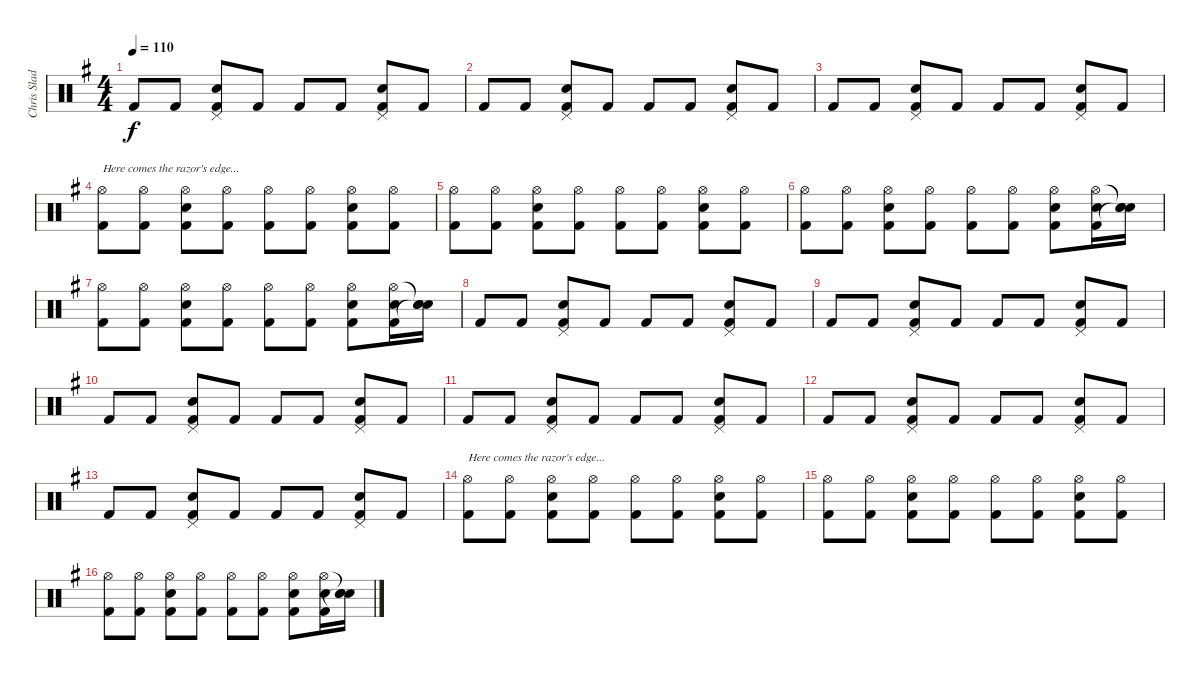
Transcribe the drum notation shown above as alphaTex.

\track ("Chris Slade (Percussion)" "Chris Slad") {instrument percussion}
\staff {score}
\articulation defaults
\ts (4 4)
\tempo 110
\clef neutral
\ks g "Kick (hit) 2".8{dy f} "Kick (hit) 2".8
("Pedal Hi-Hat (hit)" "Snare (hit) 2" "Kick (hit) 2").8 "Kick (hit) 2".8 "Kick (hit) 2".8 "Kick (hit) 2".8 ("Pedal Hi-Hat (hit)" "Snare (hit) 2" "Kick (hit) 2").8 "Kick (hit) 2".8 |
"Kick (hit) 2".8 "Kick (hit) 2".8 ("Pedal Hi-Hat (hit)" "Snare (hit) 2" "Kick (hit) 2").8 "Kick (hit) 2".8 "Kick (hit) 2".8 "Kick (hit) 2".8 ("Pedal Hi-Hat (hit)" "Snare (hit) 2" "Kick (hit) 2").8 "Kick (hit) 2".8 |
"Kick (hit) 2".8 "Kick (hit) 2".8 ("Pedal Hi-Hat (hit)" "Snare (hit) 2" "Kick (hit) 2").8 "Kick (hit) 2".8 "Kick (hit) 2".8 "Kick (hit) 2".8 ("Pedal Hi-Hat (hit)" "Snare (hit) 2" "Kick (hit) 2").8 "Kick (hit) 2".8 |
("Hi-Hat (open)" "Kick (hit) 2").8{txt "Here comes the razor's edge..."} ("Hi-Hat (open)" "Kick (hit) 2").8 ("Hi-Hat (open)" "Snare (hit) 2" "Kick (hit) 2").8 ("Hi-Hat (open)" "Kick (hit) 2").8 ("Hi-Hat (open)" "Kick (hit) 2").8 ("Hi-Hat (open)" "Kick (hit) 2").8 ("Hi-Hat (open)" "Snare (hit) 2" "Kick (hit) 2").8 ("Hi-Hat (open)" "Kick (hit) 2").8 |
("Hi-Hat (open)" "Kick (hit) 2").8 ("Hi-Hat (open)" "Kick (hit) 2").8 ("Hi-Hat (open)" "Snare (hit) 2" "Kick (hit) 2").8 ("Hi-Hat (open)" "Kick (hit) 2").8 ("Hi-Hat (open)" "Kick (hit) 2").8 ("Hi-Hat (open)" "Kick (hit) 2").8 ("Hi-Hat (open)" "Snare (hit) 2" "Kick (hit) 2").8 ("Hi-Hat (open)" "Kick (hit) 2").8 |
("Hi-Hat (open)" "Kick (hit) 2").8 ("Hi-Hat (open)" "Kick (hit) 2").8 ("Hi-Hat (open)" "Snare (hit) 2" "Kick (hit) 2").8 ("Hi-Hat (open)" "Kick (hit) 2").8 ("Hi-Hat (open)" "Kick (hit) 2").8 ("Hi-Hat (open)" "Kick (hit) 2").8 ("Hi-Hat (open)" "Snare (hit) 2" "Kick (hit) 2").8 ("Hi-Hat (open)" "Snare (hit) 2" "Kick (hit) 2").16 ("Snare (hit)"{t} "Snare (hit) 2" "Snare (hit)"{t}).16 |
("Hi-Hat (open)" "Kick (hit) 2").8 ("Hi-Hat (open)" "Kick (hit) 2").8 ("Hi-Hat (open)" "Snare (hit) 2" "Kick (hit) 2").8 ("Hi-Hat (open)" "Kick (hit) 2").8 ("Hi-Hat (open)" "Kick (hit) 2").8 ("Hi-Hat (open)" "Kick (hit) 2").8 ("Hi-Hat (open)" "Snare (hit) 2" "Kick (hit) 2").8 ("Hi-Hat (open)" "Snare (hit) 2" "Kick (hit) 2").16 ("Snare (hit)"{t} "Snare (hit) 2" "Snare (hit)"{t}).16 |
"Kick (hit) 2".8 "Kick (hit) 2".8 ("Pedal Hi-Hat (hit)" "Snare (hit) 2" "Kick (hit) 2").8 "Kick (hit) 2".8 "Kick (hit) 2".8 "Kick (hit) 2".8 ("Pedal Hi-Hat (hit)" "Snare (hit) 2" "Kick (hit) 2").8 "Kick (hit) 2".8 |
"Kick (hit) 2".8 "Kick (hit) 2".8 ("Pedal Hi-Hat (hit)" "Snare (hit) 2" "Kick (hit) 2").8 "Kick (hit) 2".8 "Kick (hit) 2".8 "Kick (hit) 2".8 ("Pedal Hi-Hat (hit)" "Snare (hit) 2" "Kick (hit) 2").8 "Kick (hit) 2".8 |
"Kick (hit) 2".8 "Kick (hit) 2".8 ("Pedal Hi-Hat (hit)" "Snare (hit) 2" "Kick (hit) 2").8 "Kick (hit) 2".8 "Kick (hit) 2".8 "Kick (hit) 2".8 ("Pedal Hi-Hat (hit)" "Snare (hit) 2" "Kick (hit) 2").8 "Kick (hit) 2".8 |
"Kick (hit) 2".8 "Kick (hit) 2".8 ("Pedal Hi-Hat (hit)" "Snare (hit) 2" "Kick (hit) 2").8 "Kick (hit) 2".8 "Kick (hit) 2".8 "Kick (hit) 2".8 ("Pedal Hi-Hat (hit)" "Snare (hit) 2" "Kick (hit) 2").8 "Kick (hit) 2".8 |
"Kick (hit) 2".8 "Kick (hit) 2".8 ("Pedal Hi-Hat (hit)" "Snare (hit) 2" "Kick (hit) 2").8 "Kick (hit) 2".8 "Kick (hit) 2".8 "Kick (hit) 2".8 ("Pedal Hi-Hat (hit)" "Snare (hit) 2" "Kick (hit) 2").8 "Kick (hit) 2".8 |
"Kick (hit) 2".8 "Kick (hit) 2".8 ("Pedal Hi-Hat (hit)" "Snare (hit) 2" "Kick (hit) 2").8 "Kick (hit) 2".8 "Kick (hit) 2".8 "Kick (hit) 2".8 ("Pedal Hi-Hat (hit)" "Snare (hit) 2" "Kick (hit) 2").8 "Kick (hit) 2".8 |
("Hi-Hat (open)" "Kick (hit) 2").8{txt "Here comes the razor's edge..."} ("Hi-Hat (open)" "Kick (hit) 2").8 ("Hi-Hat (open)" "Snare (hit) 2" "Kick (hit) 2").8 ("Hi-Hat (open)" "Kick (hit) 2").8 ("Hi-Hat (open)" "Kick (hit) 2").8 ("Hi-Hat (open)" "Kick (hit) 2").8 ("Hi-Hat (open)" "Snare (hit) 2" "Kick (hit) 2").8 ("Hi-Hat (open)" "Kick (hit) 2").8 |
("Hi-Hat (open)" "Kick (hit) 2").8 ("Hi-Hat (open)" "Kick (hit) 2").8 ("Hi-Hat (open)" "Snare (hit) 2" "Kick (hit) 2").8 ("Hi-Hat (open)" "Kick (hit) 2").8 ("Hi-Hat (open)" "Kick (hit) 2").8 ("Hi-Hat (open)" "Kick (hit) 2").8 ("Hi-Hat (open)" "Snare (hit) 2" "Kick (hit) 2").8 ("Hi-Hat (open)" "Kick (hit) 2").8 |
("Hi-Hat (open)" "Kick (hit) 2").8 ("Hi-Hat (open)" "Kick (hit) 2").8 ("Hi-Hat (open)" "Snare (hit) 2" "Kick (hit) 2").8 ("Hi-Hat (open)" "Kick (hit) 2").8 ("Hi-Hat (open)" "Kick (hit) 2").8 ("Hi-Hat (open)" "Kick (hit) 2").8 ("Hi-Hat (open)" "Snare (hit) 2" "Kick (hit) 2").8 ("Hi-Hat (open)" "Snare (hit) 2" "Kick (hit) 2").16 ("Snare (hit)"{t} "Snare (hit) 2" "Snare (hit)"{t}).16
